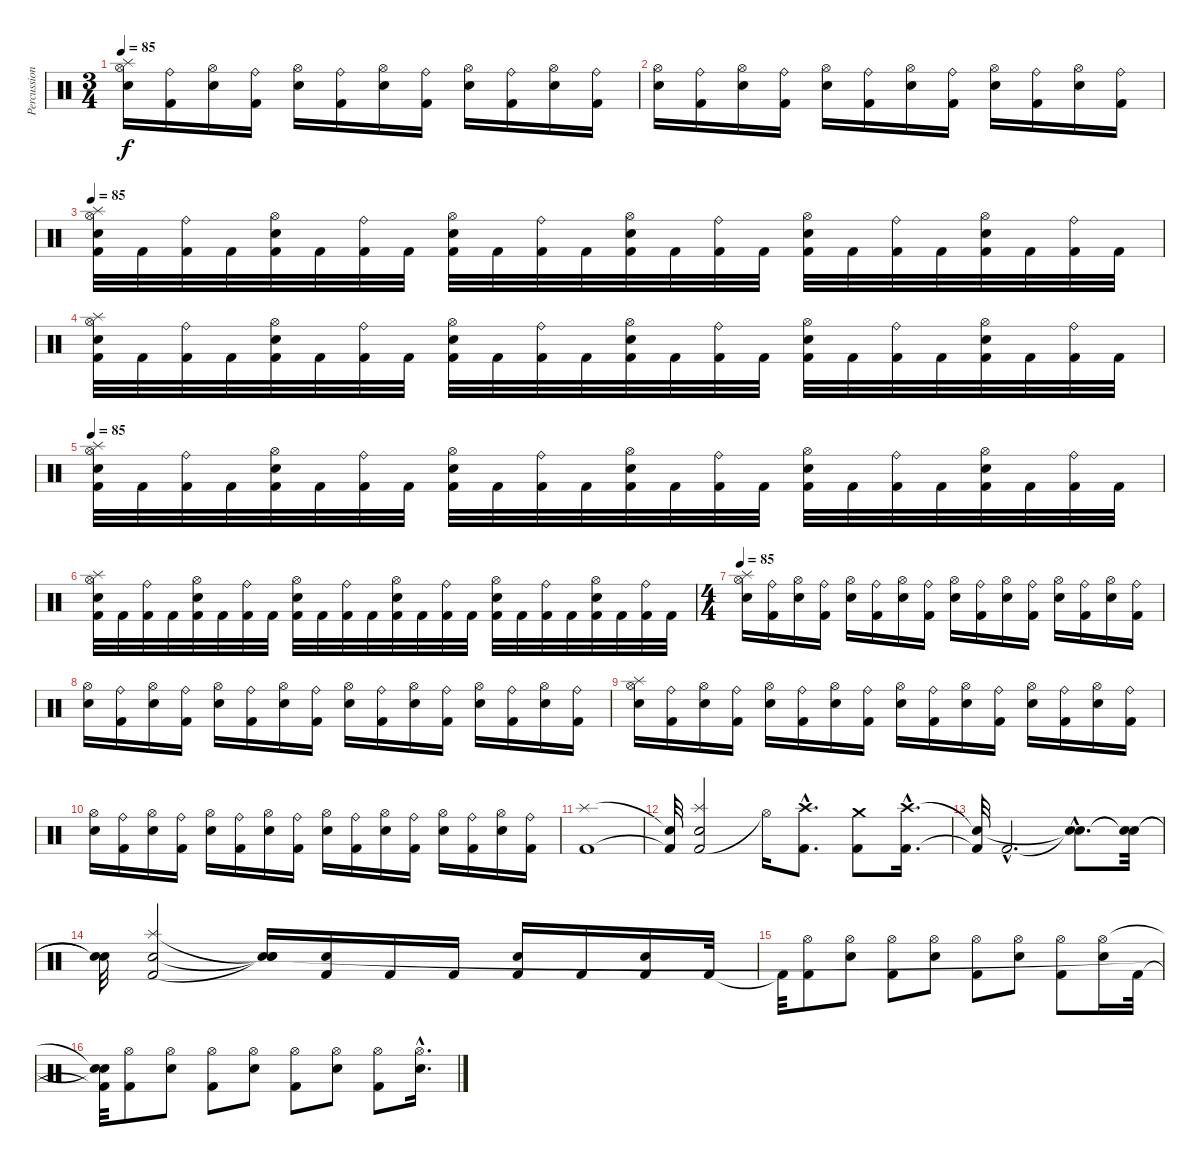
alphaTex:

\track ("Percussion" "Percussion") {instrument percussion}
\staff {score}
\articulation defaults
\ts (3 4)
\tempo 85
\clef neutral
\ks c
("Snare (hit) 2" "Hi-Hat (open)" "Splash (hit)").16{dy f} ("Kick (hit) 2" "Ride (bell)").16 ("Snare (hit) 2" "Hi-Hat (open)").16 ("Kick (hit) 2" "Ride (bell)").16 ("Snare (hit) 2" "Hi-Hat (open)").16 ("Kick (hit) 2" "Ride (bell)").16 ("Snare (hit) 2" "Hi-Hat (open)").16 ("Kick (hit) 2" "Ride (bell)").16 ("Snare (hit) 2" "Hi-Hat (open)").16 ("Kick (hit) 2" "Ride (bell)").16 ("Snare (hit) 2" "Hi-Hat (open)").16 ("Kick (hit) 2" "Ride (bell)").16 |
("Snare (hit) 2" "Hi-Hat (open)").16 ("Kick (hit) 2" "Ride (bell)").16 ("Snare (hit) 2" "Hi-Hat (open)").16 ("Kick (hit) 2" "Ride (bell)").16 ("Snare (hit) 2" "Hi-Hat (open)").16 ("Kick (hit) 2" "Ride (bell)").16 ("Snare (hit) 2" "Hi-Hat (open)").16 ("Kick (hit) 2" "Ride (bell)").16 ("Snare (hit) 2" "Hi-Hat (open)").16 ("Kick (hit) 2" "Ride (bell)").16 ("Snare (hit) 2" "Hi-Hat (open)").16 ("Kick (hit) 2" "Ride (bell)").16 |
\tempo 85
("Kick (hit) 2" "Snare (hit) 2" "Hi-Hat (open)" "Splash (hit)").32 "Kick (hit) 2".32 ("Kick (hit) 2" "Ride (bell)").32 "Kick (hit) 2".32 ("Kick (hit) 2" "Snare (hit) 2" "Hi-Hat (open)").32 "Kick (hit) 2".32 ("Kick (hit) 2" "Ride (bell)").32 "Kick (hit) 2".32 ("Kick (hit) 2" "Snare (hit) 2" "Hi-Hat (open)").32 "Kick (hit) 2".32 ("Kick (hit) 2" "Ride (bell)").32 "Kick (hit) 2".32 ("Kick (hit) 2" "Snare (hit) 2" "Hi-Hat (open)").32 "Kick (hit) 2".32 ("Kick (hit) 2" "Ride (bell)").32 "Kick (hit) 2".32 ("Kick (hit) 2" "Snare (hit) 2" "Hi-Hat (open)").32 "Kick (hit) 2".32 ("Kick (hit) 2" "Ride (bell)").32 "Kick (hit) 2".32 ("Kick (hit) 2" "Snare (hit) 2" "Hi-Hat (open)").32 "Kick (hit) 2".32 ("Kick (hit) 2" "Ride (bell)").32 "Kick (hit) 2".32 |
("Kick (hit) 2" "Snare (hit) 2" "Hi-Hat (open)" "Splash (hit)").32 "Kick (hit) 2".32 ("Kick (hit) 2" "Ride (bell)").32 "Kick (hit) 2".32 ("Kick (hit) 2" "Snare (hit) 2" "Hi-Hat (open)").32 "Kick (hit) 2".32 ("Kick (hit) 2" "Ride (bell)").32 "Kick (hit) 2".32 ("Kick (hit) 2" "Snare (hit) 2" "Hi-Hat (open)").32 "Kick (hit) 2".32 ("Kick (hit) 2" "Ride (bell)").32 "Kick (hit) 2".32 ("Kick (hit) 2" "Snare (hit) 2" "Hi-Hat (open)").32 "Kick (hit) 2".32 ("Kick (hit) 2" "Ride (bell)").32 "Kick (hit) 2".32 ("Kick (hit) 2" "Snare (hit) 2" "Hi-Hat (open)").32 "Kick (hit) 2".32 ("Kick (hit) 2" "Ride (bell)").32 "Kick (hit) 2".32 ("Kick (hit) 2" "Snare (hit) 2" "Hi-Hat (open)").32 "Kick (hit) 2".32 ("Kick (hit) 2" "Ride (bell)").32 "Kick (hit) 2".32 |
\tempo 85
("Kick (hit) 2" "Snare (hit) 2" "Hi-Hat (open)" "Splash (hit)").32 "Kick (hit) 2".32 ("Kick (hit) 2" "Ride (bell)").32 "Kick (hit) 2".32 ("Kick (hit) 2" "Snare (hit) 2" "Hi-Hat (open)").32 "Kick (hit) 2".32 ("Kick (hit) 2" "Ride (bell)").32 "Kick (hit) 2".32 ("Kick (hit) 2" "Snare (hit) 2" "Hi-Hat (open)").32 "Kick (hit) 2".32 ("Kick (hit) 2" "Ride (bell)").32 "Kick (hit) 2".32 ("Kick (hit) 2" "Snare (hit) 2" "Hi-Hat (open)").32 "Kick (hit) 2".32 ("Kick (hit) 2" "Ride (bell)").32 "Kick (hit) 2".32 ("Kick (hit) 2" "Snare (hit) 2" "Hi-Hat (open)").32 "Kick (hit) 2".32 ("Kick (hit) 2" "Ride (bell)").32 "Kick (hit) 2".32 ("Kick (hit) 2" "Snare (hit) 2" "Hi-Hat (open)").32 "Kick (hit) 2".32 ("Kick (hit) 2" "Ride (bell)").32 "Kick (hit) 2".32 |
("Kick (hit) 2" "Snare (hit) 2" "Hi-Hat (open)" "Splash (hit)").32 "Kick (hit) 2".32 ("Kick (hit) 2" "Ride (bell)").32 "Kick (hit) 2".32 ("Kick (hit) 2" "Snare (hit) 2" "Hi-Hat (open)").32 "Kick (hit) 2".32 ("Kick (hit) 2" "Ride (bell)").32 "Kick (hit) 2".32 ("Kick (hit) 2" "Snare (hit) 2" "Hi-Hat (open)").32 "Kick (hit) 2".32 ("Kick (hit) 2" "Ride (bell)").32 "Kick (hit) 2".32 ("Kick (hit) 2" "Snare (hit) 2" "Hi-Hat (open)").32 "Kick (hit) 2".32 ("Kick (hit) 2" "Ride (bell)").32 "Kick (hit) 2".32 ("Kick (hit) 2" "Snare (hit) 2" "Hi-Hat (open)").32 "Kick (hit) 2".32 ("Kick (hit) 2" "Ride (bell)").32 "Kick (hit) 2".32 ("Kick (hit) 2" "Snare (hit) 2" "Hi-Hat (open)").32 "Kick (hit) 2".32 ("Kick (hit) 2" "Ride (bell)").32 "Kick (hit) 2".32 |
\ts (4 4)
\tempo 85
("Snare (hit) 2" "Hi-Hat (open)" "Splash (hit)").16 ("Kick (hit) 2" "Ride (bell)").16 ("Snare (hit) 2" "Hi-Hat (open)").16 ("Kick (hit) 2" "Ride (bell)").16 ("Snare (hit) 2" "Hi-Hat (open)").16 ("Kick (hit) 2" "Ride (bell)").16 ("Snare (hit) 2" "Hi-Hat (open)").16 ("Kick (hit) 2" "Ride (bell)").16 ("Snare (hit) 2" "Hi-Hat (open)").16 ("Kick (hit) 2" "Ride (bell)").16 ("Snare (hit) 2" "Hi-Hat (open)").16 ("Kick (hit) 2" "Ride (bell)").16 ("Snare (hit) 2" "Hi-Hat (open)").16 ("Kick (hit) 2" "Ride (bell)").16 ("Snare (hit) 2" "Hi-Hat (open)").16 ("Kick (hit) 2" "Ride (bell)").16 |
("Snare (hit) 2" "Hi-Hat (open)").16 ("Kick (hit) 2" "Ride (bell)").16 ("Snare (hit) 2" "Hi-Hat (open)").16 ("Kick (hit) 2" "Ride (bell)").16 ("Snare (hit) 2" "Hi-Hat (open)").16 ("Kick (hit) 2" "Ride (bell)").16 ("Snare (hit) 2" "Hi-Hat (open)").16 ("Kick (hit) 2" "Ride (bell)").16 ("Snare (hit) 2" "Hi-Hat (open)").16 ("Kick (hit) 2" "Ride (bell)").16 ("Snare (hit) 2" "Hi-Hat (open)").16 ("Kick (hit) 2" "Ride (bell)").16 ("Snare (hit) 2" "Hi-Hat (open)").16 ("Kick (hit) 2" "Ride (bell)").16 ("Snare (hit) 2" "Hi-Hat (open)").16 ("Kick (hit) 2" "Ride (bell)").16 |
("Snare (hit) 2" "Hi-Hat (open)" "Splash (hit)").16 ("Kick (hit) 2" "Ride (bell)").16 ("Snare (hit) 2" "Hi-Hat (open)").16 ("Kick (hit) 2" "Ride (bell)").16 ("Snare (hit) 2" "Hi-Hat (open)").16 ("Kick (hit) 2" "Ride (bell)").16 ("Snare (hit) 2" "Hi-Hat (open)").16 ("Kick (hit) 2" "Ride (bell)").16 ("Snare (hit) 2" "Hi-Hat (open)").16 ("Kick (hit) 2" "Ride (bell)").16 ("Snare (hit) 2" "Hi-Hat (open)").16 ("Kick (hit) 2" "Ride (bell)").16 ("Snare (hit) 2" "Hi-Hat (open)").16 ("Kick (hit) 2" "Ride (bell)").16 ("Snare (hit) 2" "Hi-Hat (open)").16 ("Kick (hit) 2" "Ride (bell)").16 |
("Snare (hit) 2" "Hi-Hat (open)").16 ("Kick (hit) 2" "Ride (bell)").16 ("Snare (hit) 2" "Hi-Hat (open)").16 ("Kick (hit) 2" "Ride (bell)").16 ("Snare (hit) 2" "Hi-Hat (open)").16 ("Kick (hit) 2" "Ride (bell)").16 ("Snare (hit) 2" "Hi-Hat (open)").16 ("Kick (hit) 2" "Ride (bell)").16 ("Snare (hit) 2" "Hi-Hat (open)").16 ("Kick (hit) 2" "Ride (bell)").16 ("Snare (hit) 2" "Hi-Hat (open)").16 ("Kick (hit) 2" "Ride (bell)").16 ("Snare (hit) 2" "Hi-Hat (open)").16 ("Kick (hit) 2" "Ride (bell)").16 ("Snare (hit) 2" "Hi-Hat (open)").16 ("Kick (hit) 2" "Ride (bell)").16 |
("Kick (hit) 2" "Splash (hit)").1 |
("Kick (hit) 2"{t} "Snare (hit) 2"{t}).32 ("Kick (hit) 2" "Snare (hit) 2" "Splash (hit)").2 "Hi-Hat (open)"{t}.16 ("Kick (hit) 2"{hac} "Crash high (hit)"{hac}).8{d} ("Kick (hit) 2" "Crash medium (hit)").8 ("Kick (hit) 2"{hac} "Crash high (hit)"{hac}).16{d} |
("Kick (hit) 2"{t} "Snare (hit)"{t}).32 "Kick (hit) 2"{hac}.2{d} ("Snare (hit)"{hac t} "Snare (hit)"{hac t}).8{d} ("Snare (hit)"{t} "Snare (hit)"{t}).32 |
("Snare (hit)"{t} "Snare (hit)"{t}).32 ("Kick (hit) 2" "Snare (hit) 2" "Splash (hit)").2 ("Snare (hit)"{t} "Snare (hit)"{t} "Snare (hit)"{t}).16 ("Kick (hit) 2" "Snare (hit) 2").16 "Kick (hit) 2".16 "Kick (hit) 2".16 ("Kick (hit) 2" "Snare (hit) 2").16 "Kick (hit) 2".16 ("Kick (hit) 2" "Snare (hit) 2").16 "Kick (hit) 2".32 |
"Kick (hit) 2"{t}.32 ("Kick (hit) 2" "Hi-Hat (open)").8 ("Snare (hit) 2" "Hi-Hat (open)").8 ("Kick (hit) 2" "Hi-Hat (open)").8 ("Snare (hit) 2" "Hi-Hat (open)").8 ("Kick (hit) 2" "Hi-Hat (open)").8 ("Snare (hit) 2" "Hi-Hat (open)").8 ("Kick (hit) 2" "Hi-Hat (open)").8 ("Snare (hit) 2" "Hi-Hat (open)").16 "Kick (hit) 2".32 |
("Kick (hit) 2"{t} "Snare (hit)"{t} "Snare (hit)"{t}).32 ("Kick (hit) 2" "Hi-Hat (open)").8 ("Snare (hit) 2" "Hi-Hat (open)").8 ("Kick (hit) 2" "Hi-Hat (open)").8 ("Snare (hit) 2" "Hi-Hat (open)").8 ("Kick (hit) 2" "Hi-Hat (open)").8 ("Snare (hit) 2" "Hi-Hat (open)").8 ("Kick (hit) 2" "Hi-Hat (open)").8 ("Snare (hit) 2"{hac} "Hi-Hat (open)"{hac}).16{d}
